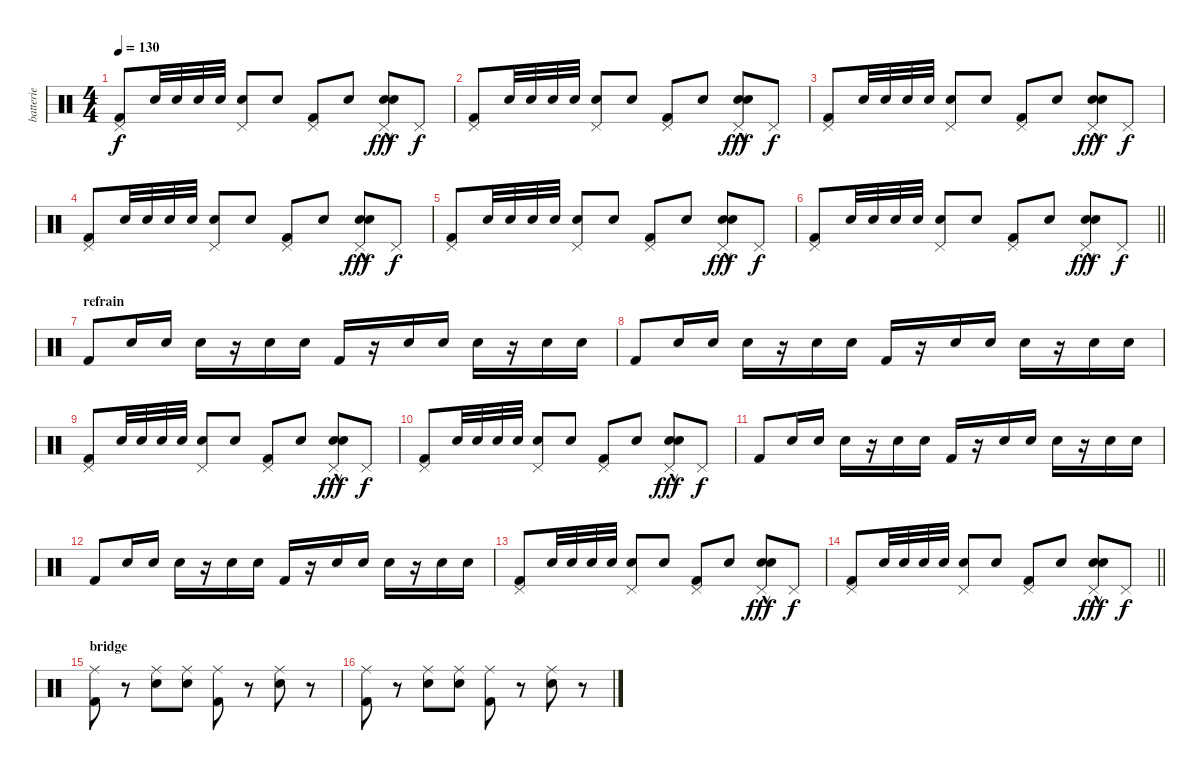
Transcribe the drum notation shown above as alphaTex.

\track ("batterie" "batterie") {instrument percussion}
\staff {score}
\articulation defaults
\ts (4 4)
\tempo 130
\clef neutral
\ks c
("Pedal Hi-Hat (hit)" "Kick (hit) 2").8{dy f} "Snare (hit) 2".32 "Snare (hit) 2".32 "Snare (hit) 2".32 "Snare (hit) 2".32 ("Pedal Hi-Hat (hit)" "Snare (hit) 2").8 "Snare (hit) 2".8 ("Pedal Hi-Hat (hit)" "Kick (hit) 2").8 "Snare (hit) 2".8 ("Pedal Hi-Hat (hit)" "Snare (hit) 2"{hac} "Snare (hit) 2"{hac}).8{dy fff} "Pedal Hi-Hat (hit)".8{dy f} |
("Pedal Hi-Hat (hit)" "Kick (hit) 2").8 "Snare (hit) 2".32 "Snare (hit) 2".32 "Snare (hit) 2".32 "Snare (hit) 2".32 ("Pedal Hi-Hat (hit)" "Snare (hit) 2").8 "Snare (hit) 2".8 ("Pedal Hi-Hat (hit)" "Kick (hit) 2").8 "Snare (hit) 2".8 ("Pedal Hi-Hat (hit)" "Snare (hit) 2"{hac} "Snare (hit) 2"{hac}).8{dy fff} "Pedal Hi-Hat (hit)".8{dy f} |
("Pedal Hi-Hat (hit)" "Kick (hit) 2").8 "Snare (hit) 2".32 "Snare (hit) 2".32 "Snare (hit) 2".32 "Snare (hit) 2".32 ("Pedal Hi-Hat (hit)" "Snare (hit) 2").8 "Snare (hit) 2".8 ("Pedal Hi-Hat (hit)" "Kick (hit) 2").8 "Snare (hit) 2".8 ("Pedal Hi-Hat (hit)" "Snare (hit) 2"{hac} "Snare (hit) 2"{hac}).8{dy fff} "Pedal Hi-Hat (hit)".8{dy f} |
("Pedal Hi-Hat (hit)" "Kick (hit) 2").8 "Snare (hit) 2".32 "Snare (hit) 2".32 "Snare (hit) 2".32 "Snare (hit) 2".32 ("Pedal Hi-Hat (hit)" "Snare (hit) 2").8 "Snare (hit) 2".8 ("Pedal Hi-Hat (hit)" "Kick (hit) 2").8 "Snare (hit) 2".8 ("Pedal Hi-Hat (hit)" "Snare (hit) 2"{hac} "Snare (hit) 2"{hac}).8{dy fff} "Pedal Hi-Hat (hit)".8{dy f} |
("Pedal Hi-Hat (hit)" "Kick (hit) 2").8 "Snare (hit) 2".32 "Snare (hit) 2".32 "Snare (hit) 2".32 "Snare (hit) 2".32 ("Pedal Hi-Hat (hit)" "Snare (hit) 2").8 "Snare (hit) 2".8 ("Pedal Hi-Hat (hit)" "Kick (hit) 2").8 "Snare (hit) 2".8 ("Pedal Hi-Hat (hit)" "Snare (hit) 2"{hac} "Snare (hit) 2"{hac}).8{dy fff} "Pedal Hi-Hat (hit)".8{dy f} |
\barLineRight lightlight
("Pedal Hi-Hat (hit)" "Kick (hit) 2").8 "Snare (hit) 2".32 "Snare (hit) 2".32 "Snare (hit) 2".32 "Snare (hit) 2".32 ("Pedal Hi-Hat (hit)" "Snare (hit) 2").8 "Snare (hit) 2".8 ("Pedal Hi-Hat (hit)" "Kick (hit) 2").8 "Snare (hit) 2".8 ("Pedal Hi-Hat (hit)" "Snare (hit) 2"{hac} "Snare (hit) 2"{hac}).8{dy fff} "Pedal Hi-Hat (hit)".8{dy f} |
\section ("" "refrain")
"Kick (hit) 2".8 "Snare (hit) 2".16 "Snare (hit) 2".16 "Snare (hit) 2".16 r.16 "Snare (hit) 2".16 "Snare (hit) 2".16 "Kick (hit) 2".16 r.16 "Snare (hit) 2".16 "Snare (hit) 2".16 "Snare (hit) 2".16 r.16 "Snare (hit) 2".16 "Snare (hit) 2".16 |
"Kick (hit) 2".8 "Snare (hit) 2".16 "Snare (hit) 2".16 "Snare (hit) 2".16 r.16 "Snare (hit) 2".16 "Snare (hit) 2".16 "Kick (hit) 2".16 r.16 "Snare (hit) 2".16 "Snare (hit) 2".16 "Snare (hit) 2".16 r.16 "Snare (hit) 2".16 "Snare (hit) 2".16 |
("Pedal Hi-Hat (hit)" "Kick (hit) 2").8 "Snare (hit) 2".32 "Snare (hit) 2".32 "Snare (hit) 2".32 "Snare (hit) 2".32 ("Pedal Hi-Hat (hit)" "Snare (hit) 2").8 "Snare (hit) 2".8 ("Pedal Hi-Hat (hit)" "Kick (hit) 2").8 "Snare (hit) 2".8 ("Pedal Hi-Hat (hit)" "Snare (hit) 2"{hac} "Snare (hit) 2"{hac}).8{dy fff} "Pedal Hi-Hat (hit)".8{dy f} |
("Pedal Hi-Hat (hit)" "Kick (hit) 2").8 "Snare (hit) 2".32 "Snare (hit) 2".32 "Snare (hit) 2".32 "Snare (hit) 2".32 ("Pedal Hi-Hat (hit)" "Snare (hit) 2").8 "Snare (hit) 2".8 ("Pedal Hi-Hat (hit)" "Kick (hit) 2").8 "Snare (hit) 2".8 ("Pedal Hi-Hat (hit)" "Snare (hit) 2"{hac} "Snare (hit) 2"{hac}).8{dy fff} "Pedal Hi-Hat (hit)".8{dy f} |
"Kick (hit) 2".8 "Snare (hit) 2".16 "Snare (hit) 2".16 "Snare (hit) 2".16 r.16 "Snare (hit) 2".16 "Snare (hit) 2".16 "Kick (hit) 2".16 r.16 "Snare (hit) 2".16 "Snare (hit) 2".16 "Snare (hit) 2".16 r.16 "Snare (hit) 2".16 "Snare (hit) 2".16 |
"Kick (hit) 2".8 "Snare (hit) 2".16 "Snare (hit) 2".16 "Snare (hit) 2".16 r.16 "Snare (hit) 2".16 "Snare (hit) 2".16 "Kick (hit) 2".16 r.16 "Snare (hit) 2".16 "Snare (hit) 2".16 "Snare (hit) 2".16 r.16 "Snare (hit) 2".16 "Snare (hit) 2".16 |
("Pedal Hi-Hat (hit)" "Kick (hit) 2").8 "Snare (hit) 2".32 "Snare (hit) 2".32 "Snare (hit) 2".32 "Snare (hit) 2".32 ("Pedal Hi-Hat (hit)" "Snare (hit) 2").8 "Snare (hit) 2".8 ("Pedal Hi-Hat (hit)" "Kick (hit) 2").8 "Snare (hit) 2".8 ("Pedal Hi-Hat (hit)" "Snare (hit) 2"{hac} "Snare (hit) 2"{hac}).8{dy fff} "Pedal Hi-Hat (hit)".8{dy f} |
\barLineRight lightlight
("Pedal Hi-Hat (hit)" "Kick (hit) 2").8 "Snare (hit) 2".32 "Snare (hit) 2".32 "Snare (hit) 2".32 "Snare (hit) 2".32 ("Pedal Hi-Hat (hit)" "Snare (hit) 2").8 "Snare (hit) 2".8 ("Pedal Hi-Hat (hit)" "Kick (hit) 2").8 "Snare (hit) 2".8 ("Pedal Hi-Hat (hit)" "Snare (hit) 2"{hac} "Snare (hit) 2"{hac}).8{dy fff} "Pedal Hi-Hat (hit)".8{dy f} |
\section ("" "bridge")
("Ride (middle)" "Kick (hit) 2").8 r.8 ("Ride (middle)" "Snare (hit) 2").8 ("Ride (middle)" "Snare (hit) 2").8 ("Ride (middle)" "Kick (hit) 2").8 r.8 ("Ride (middle)" "Snare (hit) 2").8 r.8 |
("Ride (middle)" "Kick (hit) 2").8 r.8 ("Ride (middle)" "Snare (hit) 2").8 ("Ride (middle)" "Snare (hit) 2").8 ("Ride (middle)" "Kick (hit) 2").8 r.8 ("Ride (middle)" "Snare (hit) 2").8 r.8
